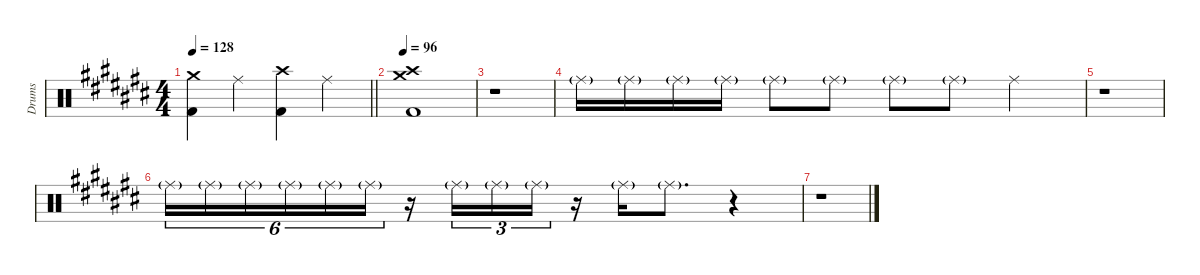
\hideDynamics
\bracketExtendMode nobrackets
\otherSystemsTrackNameOrientation horizontal
\track ("Drumkit" "Drums") {defaultSystemsLayout 4 instrument percussion}
\staff {score}
\articulation defaults
\ts (4 4)
\tempo 128
\clef neutral
\barLineRight lightlight
\ks c#
("Crash medium (hit)"{acc forcenatural} "Kick (hit) 2"{acc forcenatural}).4{dy ff beam Down} "Ride (middle)"{acc forcenatural}.4{beam Down} ("Crash high (hit)"{acc forcenatural} "Kick (hit) 2"{acc forcenatural}).4{beam Down} "Ride (middle)"{acc forcenatural}.4{beam Down} |
\tempo 96
("Crash medium (hit)"{acc forcenatural} "Kick (hit) 2"{acc forcenatural} "Crash high (hit)"{acc forcenatural}).1{beam Down} |
r.1{beam Down} |
"Ride (middle)"{g acc forcenatural}.16{beam Down} "Ride (middle)"{g acc forcenatural}.16{beam Down} "Ride (middle)"{g acc forcenatural}.16{beam Down} "Ride (middle)"{g acc forcenatural}.16{beam Down} "Ride (middle)"{g acc forcenatural}.8{beam Down} "Ride (middle)"{g acc forcenatural}.8{beam Down} "Ride (middle)"{g acc forcenatural}.8{beam Down} "Ride (middle)"{g acc forcenatural}.8{beam Down} "Ride (middle)"{acc forcenatural}.4{beam Down} |
r.1{beam Down} |
"Ride (middle)"{g acc forcenatural}.16{tu (6 4) dy mp beam Down} "Ride (middle)"{g acc forcenatural}.16{tu (6 4) beam Down} "Ride (middle)"{g acc forcenatural}.16{tu (6 4) beam Down} "Ride (middle)"{g acc forcenatural}.16{tu (6 4) beam Down} "Ride (middle)"{g acc forcenatural}.16{tu (6 4) beam Down} "Ride (middle)"{g acc forcenatural}.16{tu (6 4) beam Down} r.16{beam Down} "Ride (middle)"{g acc forcenatural}.16{tu (3 2) beam Down} "Ride (middle)"{g acc forcenatural}.16{tu (3 2) beam Down} "Ride (middle)"{g acc forcenatural}.16{tu (3 2) beam Down} r.16{beam Down} "Ride (middle)"{g acc forcenatural}.16{beam Down} "Ride (middle)"{g acc forcenatural}.8{d beam Down} r.4{beam Down} |
r.1{beam Down}
